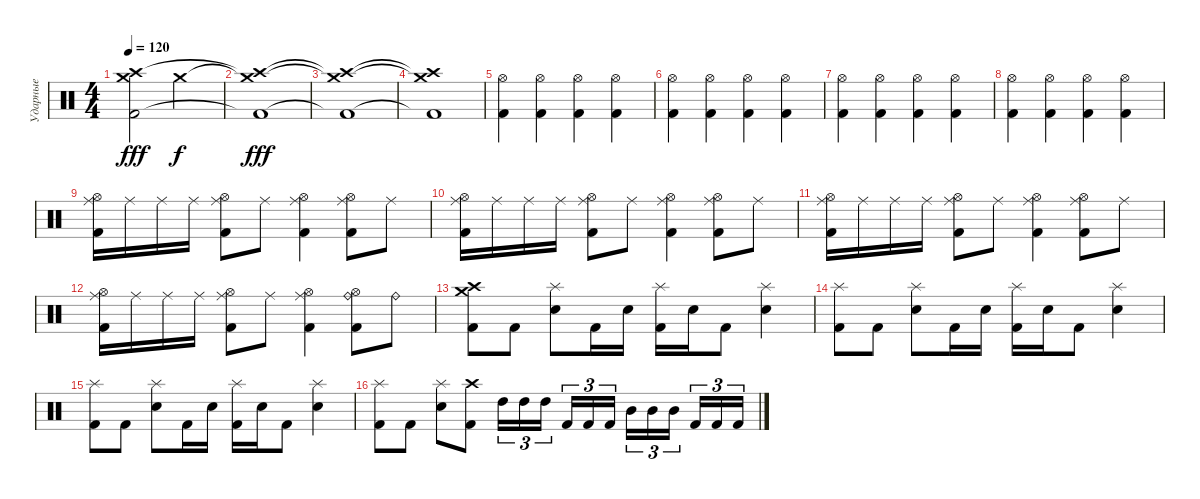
\track ("Ударные" "Ударные") {instrument percussion}
\staff {score}
\articulation defaults
\ts (4 4)
\tempo 120
\clef neutral
\ks c
("Crash medium (hit)" "Crash high (hit)" "Kick (hit) 2").2{dy fff} "Crash medium (hit)".2{dy f} |
("Crash medium (hit)"{t} "Crash high (hit)"{t} "Kick (hit) 2"{t}).1{dy fff} |
("Crash medium (hit)"{t} "Crash high (hit)"{t} "Kick (hit) 2"{t}).1 |
("Crash medium (hit)"{t} "Crash high (hit)"{t} "Kick (hit) 2"{t}).1 |
("Hi-Hat (open)" "Kick (hit) 2").4 ("Hi-Hat (open)" "Kick (hit) 2").4 ("Hi-Hat (open)" "Kick (hit) 2").4 ("Hi-Hat (open)" "Kick (hit) 2").4 |
("Hi-Hat (open)" "Kick (hit) 2").4 ("Hi-Hat (open)" "Kick (hit) 2").4 ("Hi-Hat (open)" "Kick (hit) 2").4 ("Hi-Hat (open)" "Kick (hit) 2").4 |
("Hi-Hat (open)" "Kick (hit) 2").4 ("Hi-Hat (open)" "Kick (hit) 2").4 ("Hi-Hat (open)" "Kick (hit) 2").4 ("Hi-Hat (open)" "Kick (hit) 2").4 |
("Hi-Hat (open)" "Kick (hit) 2").4 ("Hi-Hat (open)" "Kick (hit) 2").4 ("Hi-Hat (open)" "Kick (hit) 2").4 ("Hi-Hat (open)" "Kick (hit) 2").4 |
("Ride (middle)" "Hi-Hat (open)" "Kick (hit) 2").16 "Ride (middle)".16 "Ride (middle)".16 "Ride (middle)".16 ("Ride (middle)" "Hi-Hat (open)" "Kick (hit) 2").8 "Ride (middle)".8 ("Ride (middle)" "Hi-Hat (open)" "Kick (hit) 2").4 ("Ride (middle)" "Hi-Hat (open)" "Kick (hit) 2").8 "Ride (middle)".8 |
("Ride (middle)" "Hi-Hat (open)" "Kick (hit) 2").16 "Ride (middle)".16 "Ride (middle)".16 "Ride (middle)".16 ("Ride (middle)" "Hi-Hat (open)" "Kick (hit) 2").8 "Ride (middle)".8 ("Ride (middle)" "Hi-Hat (open)" "Kick (hit) 2").4 ("Ride (middle)" "Hi-Hat (open)" "Kick (hit) 2").8 "Ride (middle)".8 |
("Ride (middle)" "Hi-Hat (open)" "Kick (hit) 2").16 "Ride (middle)".16 "Ride (middle)".16 "Ride (middle)".16 ("Ride (middle)" "Hi-Hat (open)" "Kick (hit) 2").8 "Ride (middle)".8 ("Ride (middle)" "Hi-Hat (open)" "Kick (hit) 2").4 ("Ride (middle)" "Hi-Hat (open)" "Kick (hit) 2").8 "Ride (middle)".8 |
("Ride (middle)" "Hi-Hat (open)" "Kick (hit) 2").16 "Ride (middle)".16 "Ride (middle)".16 "Ride (middle)".16 ("Ride (middle)" "Hi-Hat (open)" "Kick (hit) 2").8 "Ride (middle)".8 ("Ride (middle)" "Hi-Hat (open)" "Kick (hit) 2").4 ("Ride (bell)" "Hi-Hat (open)" "Kick (hit) 2").8 "Ride (bell)".8 |
("Crash medium (hit)" "Crash high (hit)" "Kick (hit) 2").8 "Kick (hit) 2".8 ("Splash (hit)" "Electric Snare (hit)").8 "Kick (hit) 2".16 "Electric Snare (hit)".16 ("Splash (hit)" "Kick (hit) 2").16 "Electric Snare (hit)".16 "Kick (hit) 2".8 ("Splash (hit)" "Electric Snare (hit)").4 |
("Splash (hit)" "Kick (hit) 2").8 "Kick (hit) 2".8 ("Splash (hit)" "Electric Snare (hit)").8 "Kick (hit) 2".16 "Electric Snare (hit)".16 ("Splash (hit)" "Kick (hit) 2").16 "Electric Snare (hit)".16 "Kick (hit) 2".8 ("Splash (hit)" "Electric Snare (hit)").4 |
("Splash (hit)" "Kick (hit) 2").8 "Kick (hit) 2".8 ("Splash (hit)" "Electric Snare (hit)").8 "Kick (hit) 2".16 "Electric Snare (hit)".16 ("Splash (hit)" "Kick (hit) 2").16 "Electric Snare (hit)".16 "Kick (hit) 2".8 ("Splash (hit)" "Electric Snare (hit)").4 |
("Splash (hit)" "Kick (hit) 2").8 "Kick (hit) 2".8 ("Splash (hit)" "Electric Snare (hit)").8 ("Crash high (hit)" "Kick (hit) 2").8 "High Tom (hit)".16{tu (3 2)} "High Tom (hit)".16{tu (3 2)} "High Tom (hit)".16{tu (3 2) beam splitsecondary} "Kick (hit) 2".16{tu (3 2)} "Kick (hit) 2".16{tu (3 2)} "Kick (hit) 2".16{tu (3 2)} "Mid Tom (hit)".16{tu (3 2)} "Mid Tom (hit)".16{tu (3 2)} "Mid Tom (hit)".16{tu (3 2) beam splitsecondary} "Kick (hit) 2".16{tu (3 2)} "Kick (hit) 2".16{tu (3 2)} "Kick (hit) 2".16{tu (3 2)}
